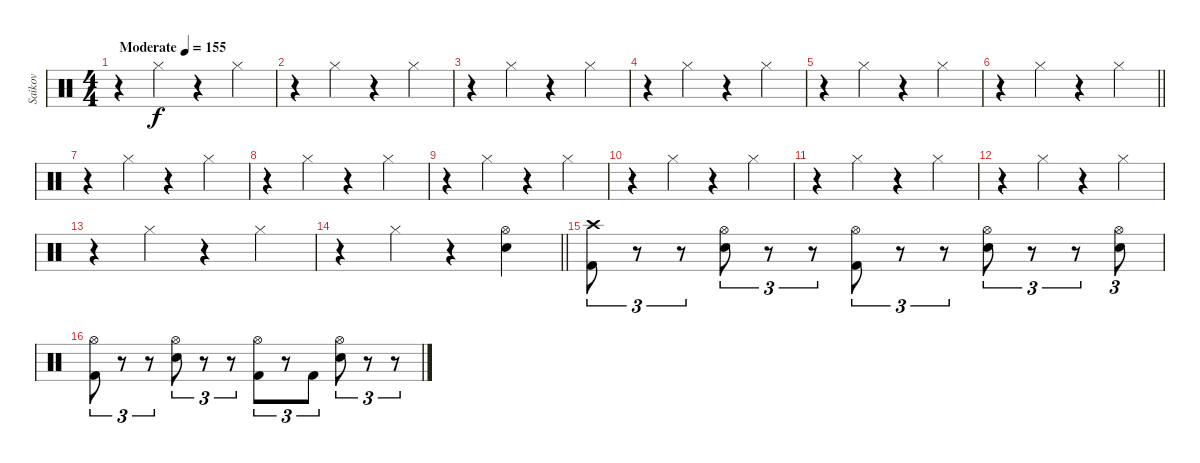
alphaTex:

\track ("Saikov" "Saikov") {instrument percussion}
\staff {score}
\articulation defaults
\ts (4 4)
\tempo (155 "Moderate")
\clef neutral
\ks c
r.4{dy f} "Hi-Hat (closed)".4 r.4 "Hi-Hat (closed)".4 |
r.4 "Hi-Hat (closed)".4 r.4 "Hi-Hat (closed)".4 |
r.4 "Hi-Hat (closed)".4 r.4 "Hi-Hat (closed)".4 |
r.4 "Hi-Hat (closed)".4 r.4 "Hi-Hat (closed)".4 |
r.4 "Hi-Hat (closed)".4 r.4 "Hi-Hat (closed)".4 |
\barLineRight lightlight
r.4 "Hi-Hat (closed)".4 r.4 "Hi-Hat (closed)".4 |
r.4 "Hi-Hat (closed)".4 r.4 "Hi-Hat (closed)".4 |
r.4 "Hi-Hat (closed)".4 r.4 "Hi-Hat (closed)".4 |
r.4 "Hi-Hat (closed)".4 r.4 "Hi-Hat (closed)".4 |
r.4 "Hi-Hat (closed)".4 r.4 "Hi-Hat (closed)".4 |
r.4 "Hi-Hat (closed)".4 r.4 "Hi-Hat (closed)".4 |
r.4 "Hi-Hat (closed)".4 r.4 "Hi-Hat (closed)".4 |
r.4 "Hi-Hat (closed)".4 r.4 "Hi-Hat (closed)".4 |
\barLineRight lightlight
r.4 "Hi-Hat (closed)".4 r.4 ("Hi-Hat (open)" "Snare (hit) 2").4 |
("Crash high (hit)" "Kick (hit) 2").8{tu (3 2)} r.8{tu (3 2)} r.8{tu (3 2)} ("Hi-Hat (open)" "Snare (hit) 2").8{tu (3 2)} r.8{tu (3 2)} r.8{tu (3 2)} ("Hi-Hat (open)" "Kick (hit) 2").8{tu (3 2)} r.8{tu (3 2)} r.8{tu (3 2)} ("Hi-Hat (open)" "Snare (hit) 2").8{tu (3 2)} r.8{tu (3 2)} r.8{tu (3 2)} ("Hi-Hat (open)" "Snare (hit) 2").8{tu (3 2)} |
("Hi-Hat (open)" "Kick (hit) 2").8{tu (3 2)} r.8{tu (3 2)} r.8{tu (3 2)} ("Hi-Hat (open)" "Snare (hit) 2").8{tu (3 2)} r.8{tu (3 2)} r.8{tu (3 2)} ("Hi-Hat (open)" "Kick (hit) 2").8{tu (3 2)} r.8{tu (3 2)} "Kick (hit) 2".8{tu (3 2)} ("Hi-Hat (open)" "Snare (hit) 2").8{tu (3 2)} r.8{tu (3 2)} r.8{tu (3 2)}
